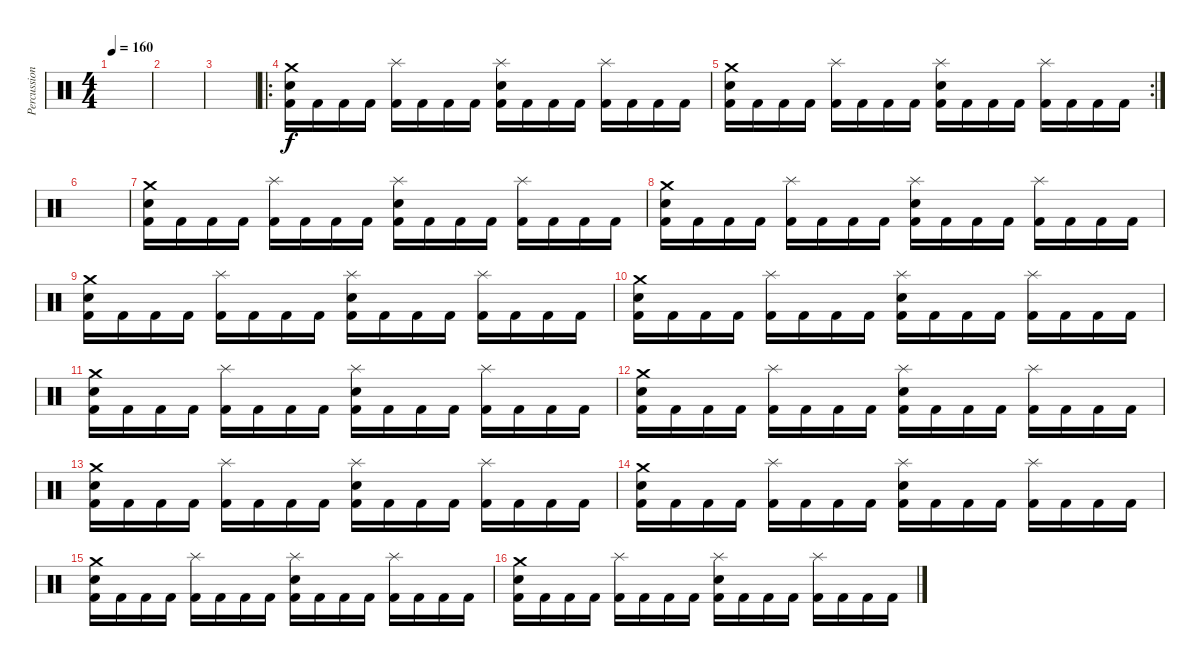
\track ("Percussion" "Percussion") {instrument percussion}
\staff {score}
\articulation defaults
\ts (4 4)
\tempo 160
\clef neutral
\ks c
|
|
|
\ro
("Crash medium (hit)" "Snare (hit) 2" "Kick (hit) 2").16 "Kick (hit) 2".16 "Kick (hit) 2".16 "Kick (hit) 2".16 ("Splash (hit)" "Kick (hit) 2").16 "Kick (hit) 2".16 "Kick (hit) 2".16 "Kick (hit) 2".16 ("Splash (hit)" "Snare (hit) 2" "Kick (hit) 2").16 "Kick (hit) 2".16 "Kick (hit) 2".16 "Kick (hit) 2".16 ("Splash (hit)" "Kick (hit) 2").16 "Kick (hit) 2".16 "Kick (hit) 2".16 "Kick (hit) 2".16 |
\rc 2
("Crash medium (hit)" "Snare (hit) 2" "Kick (hit) 2").16 "Kick (hit) 2".16 "Kick (hit) 2".16 "Kick (hit) 2".16 ("Splash (hit)" "Kick (hit) 2").16 "Kick (hit) 2".16 "Kick (hit) 2".16 "Kick (hit) 2".16 ("Splash (hit)" "Snare (hit) 2" "Kick (hit) 2").16 "Kick (hit) 2".16 "Kick (hit) 2".16 "Kick (hit) 2".16 ("Splash (hit)" "Kick (hit) 2").16 "Kick (hit) 2".16 "Kick (hit) 2".16 "Kick (hit) 2".16 |
|
("Crash medium (hit)" "Snare (hit) 2" "Kick (hit) 2").16 "Kick (hit) 2".16 "Kick (hit) 2".16 "Kick (hit) 2".16 ("Splash (hit)" "Kick (hit) 2").16 "Kick (hit) 2".16 "Kick (hit) 2".16 "Kick (hit) 2".16 ("Splash (hit)" "Snare (hit) 2" "Kick (hit) 2").16 "Kick (hit) 2".16 "Kick (hit) 2".16 "Kick (hit) 2".16 ("Splash (hit)" "Kick (hit) 2").16 "Kick (hit) 2".16 "Kick (hit) 2".16 "Kick (hit) 2".16 |
("Crash medium (hit)" "Snare (hit) 2" "Kick (hit) 2").16 "Kick (hit) 2".16 "Kick (hit) 2".16 "Kick (hit) 2".16 ("Splash (hit)" "Kick (hit) 2").16 "Kick (hit) 2".16 "Kick (hit) 2".16 "Kick (hit) 2".16 ("Splash (hit)" "Snare (hit) 2" "Kick (hit) 2").16 "Kick (hit) 2".16 "Kick (hit) 2".16 "Kick (hit) 2".16 ("Splash (hit)" "Kick (hit) 2").16 "Kick (hit) 2".16 "Kick (hit) 2".16 "Kick (hit) 2".16 |
("Crash medium (hit)" "Snare (hit) 2" "Kick (hit) 2").16 "Kick (hit) 2".16 "Kick (hit) 2".16 "Kick (hit) 2".16 ("Splash (hit)" "Kick (hit) 2").16 "Kick (hit) 2".16 "Kick (hit) 2".16 "Kick (hit) 2".16 ("Splash (hit)" "Snare (hit) 2" "Kick (hit) 2").16 "Kick (hit) 2".16 "Kick (hit) 2".16 "Kick (hit) 2".16 ("Splash (hit)" "Kick (hit) 2").16 "Kick (hit) 2".16 "Kick (hit) 2".16 "Kick (hit) 2".16 |
("Crash medium (hit)" "Snare (hit) 2" "Kick (hit) 2").16 "Kick (hit) 2".16 "Kick (hit) 2".16 "Kick (hit) 2".16 ("Splash (hit)" "Kick (hit) 2").16 "Kick (hit) 2".16 "Kick (hit) 2".16 "Kick (hit) 2".16 ("Splash (hit)" "Snare (hit) 2" "Kick (hit) 2").16 "Kick (hit) 2".16 "Kick (hit) 2".16 "Kick (hit) 2".16 ("Splash (hit)" "Kick (hit) 2").16 "Kick (hit) 2".16 "Kick (hit) 2".16 "Kick (hit) 2".16 |
("Crash medium (hit)" "Snare (hit) 2" "Kick (hit) 2").16 "Kick (hit) 2".16 "Kick (hit) 2".16 "Kick (hit) 2".16 ("Splash (hit)" "Kick (hit) 2").16 "Kick (hit) 2".16 "Kick (hit) 2".16 "Kick (hit) 2".16 ("Splash (hit)" "Snare (hit) 2" "Kick (hit) 2").16 "Kick (hit) 2".16 "Kick (hit) 2".16 "Kick (hit) 2".16 ("Splash (hit)" "Kick (hit) 2").16 "Kick (hit) 2".16 "Kick (hit) 2".16 "Kick (hit) 2".16 |
("Crash medium (hit)" "Snare (hit) 2" "Kick (hit) 2").16 "Kick (hit) 2".16 "Kick (hit) 2".16 "Kick (hit) 2".16 ("Splash (hit)" "Kick (hit) 2").16 "Kick (hit) 2".16 "Kick (hit) 2".16 "Kick (hit) 2".16 ("Splash (hit)" "Snare (hit) 2" "Kick (hit) 2").16 "Kick (hit) 2".16 "Kick (hit) 2".16 "Kick (hit) 2".16 ("Splash (hit)" "Kick (hit) 2").16 "Kick (hit) 2".16 "Kick (hit) 2".16 "Kick (hit) 2".16 |
("Crash medium (hit)" "Snare (hit) 2" "Kick (hit) 2").16 "Kick (hit) 2".16 "Kick (hit) 2".16 "Kick (hit) 2".16 ("Splash (hit)" "Kick (hit) 2").16 "Kick (hit) 2".16 "Kick (hit) 2".16 "Kick (hit) 2".16 ("Splash (hit)" "Snare (hit) 2" "Kick (hit) 2").16 "Kick (hit) 2".16 "Kick (hit) 2".16 "Kick (hit) 2".16 ("Splash (hit)" "Kick (hit) 2").16 "Kick (hit) 2".16 "Kick (hit) 2".16 "Kick (hit) 2".16 |
("Crash medium (hit)" "Snare (hit) 2" "Kick (hit) 2").16 "Kick (hit) 2".16 "Kick (hit) 2".16 "Kick (hit) 2".16 ("Splash (hit)" "Kick (hit) 2").16 "Kick (hit) 2".16 "Kick (hit) 2".16 "Kick (hit) 2".16 ("Splash (hit)" "Snare (hit) 2" "Kick (hit) 2").16 "Kick (hit) 2".16 "Kick (hit) 2".16 "Kick (hit) 2".16 ("Splash (hit)" "Kick (hit) 2").16 "Kick (hit) 2".16 "Kick (hit) 2".16 "Kick (hit) 2".16 |
("Crash medium (hit)" "Snare (hit) 2" "Kick (hit) 2").16 "Kick (hit) 2".16 "Kick (hit) 2".16 "Kick (hit) 2".16 ("Splash (hit)" "Kick (hit) 2").16 "Kick (hit) 2".16 "Kick (hit) 2".16 "Kick (hit) 2".16 ("Splash (hit)" "Snare (hit) 2" "Kick (hit) 2").16 "Kick (hit) 2".16 "Kick (hit) 2".16 "Kick (hit) 2".16 ("Splash (hit)" "Kick (hit) 2").16 "Kick (hit) 2".16 "Kick (hit) 2".16 "Kick (hit) 2".16 |
("Crash medium (hit)" "Snare (hit) 2" "Kick (hit) 2").16 "Kick (hit) 2".16 "Kick (hit) 2".16 "Kick (hit) 2".16 ("Splash (hit)" "Kick (hit) 2").16 "Kick (hit) 2".16 "Kick (hit) 2".16 "Kick (hit) 2".16 ("Splash (hit)" "Snare (hit) 2" "Kick (hit) 2").16 "Kick (hit) 2".16 "Kick (hit) 2".16 "Kick (hit) 2".16 ("Splash (hit)" "Kick (hit) 2").16 "Kick (hit) 2".16 "Kick (hit) 2".16 "Kick (hit) 2".16
